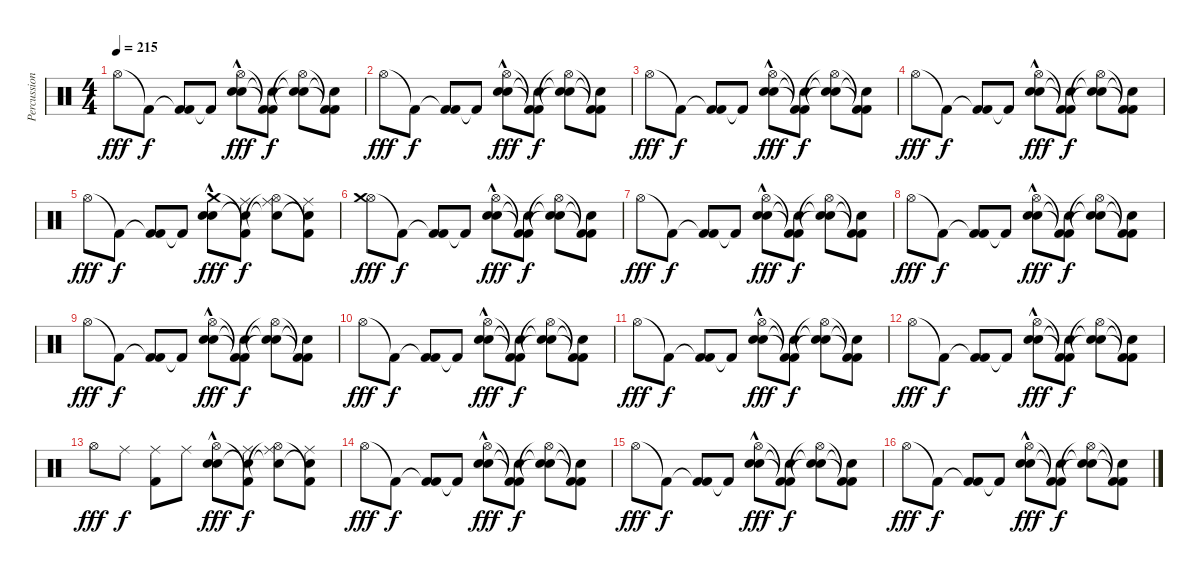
\track ("Percussion" "Percussion") {instrument percussion}
\staff {score}
\articulation defaults
\ts (4 4)
\tempo 215
\clef neutral
\ks c "Hi-Hat (open)".8{dy fff} "Kick (hit) 2"{t}.8{dy f}
("Kick (hit) 2"{t} "Kick (hit) 2").8 "Kick (hit) 2"{t}.8 ("Snare (hit) 2"{hac} "Hi-Hat (open)"{hac} "Electric Snare (hit)").8{dy fff} ("Kick (hit) 2"{t} "Kick (hit) 2"{t} "Snare (hit)"{t}).8{dy f} ("Snare (hit)"{t} "Hi-Hat (open)"{t} "Snare (hit)"{t}).8 ("Kick (hit) 2"{t} "Kick (hit) 2"{t} "Snare (hit)"{t}).8 |
"Hi-Hat (open)".8{dy fff} "Kick (hit) 2"{t}.8{dy f} ("Kick (hit) 2"{t} "Kick (hit) 2").8 "Kick (hit) 2"{t}.8 ("Snare (hit) 2"{hac} "Hi-Hat (open)"{hac} "Electric Snare (hit)").8{dy fff} ("Kick (hit) 2"{t} "Kick (hit) 2"{t} "Snare (hit)"{t}).8{dy f} ("Snare (hit)"{t} "Hi-Hat (open)"{t} "Snare (hit)"{t}).8 ("Kick (hit) 2"{t} "Kick (hit) 2"{t} "Snare (hit)"{t}).8 |
"Hi-Hat (open)".8{dy fff} "Kick (hit) 2"{t}.8{dy f} ("Kick (hit) 2"{t} "Kick (hit) 2").8 "Kick (hit) 2"{t}.8 ("Snare (hit) 2"{hac} "Hi-Hat (open)"{hac} "Electric Snare (hit)").8{dy fff} ("Kick (hit) 2"{t} "Kick (hit) 2"{t} "Snare (hit)"{t}).8{dy f} ("Snare (hit)"{t} "Hi-Hat (open)"{t} "Snare (hit)"{t}).8 ("Kick (hit) 2"{t} "Kick (hit) 2"{t} "Snare (hit)"{t}).8 |
"Hi-Hat (open)".8{dy fff} "Kick (hit) 2"{t}.8{dy f} ("Kick (hit) 2"{t} "Kick (hit) 2").8 "Kick (hit) 2"{t}.8 ("Snare (hit) 2"{hac} "Hi-Hat (open)"{hac} "Electric Snare (hit)").8{dy fff} ("Kick (hit) 2"{t} "Kick (hit) 2"{t} "Snare (hit)"{t}).8{dy f} ("Snare (hit)"{t} "Hi-Hat (open)"{t} "Snare (hit)"{t}).8 ("Kick (hit) 2"{t} "Kick (hit) 2"{t} "Snare (hit)"{t}).8 |
"Hi-Hat (open)".8{dy fff} "Kick (hit) 2"{t}.8{dy f} ("Kick (hit) 2"{t} "Kick (hit) 2").8 "Kick (hit) 2"{t}.8 ("Snare (hit) 2"{hac} "Crash medium (hit)"{hac} "Electric Snare (hit)").8{dy fff} ("Ride (middle)" "Kick (hit) 2"{t} "Snare (hit)"{t}).8{dy f} ("Ride (middle)" "Hi-Hat (open)"{t} "Snare (hit)"{t}).8 ("Ride (middle)" "Kick (hit) 2"{t} "Snare (hit)"{t}).8 |
("Hi-Hat (open)" "Crash medium (hit)").8{dy fff} "Kick (hit) 2"{t}.8{dy f} ("Kick (hit) 2"{t} "Kick (hit) 2").8 "Kick (hit) 2"{t}.8 ("Snare (hit) 2"{hac} "Hi-Hat (open)"{hac} "Electric Snare (hit)").8{dy fff} ("Kick (hit) 2"{t} "Kick (hit) 2"{t} "Snare (hit)"{t}).8{dy f} ("Snare (hit)"{t} "Hi-Hat (open)"{t} "Snare (hit)"{t}).8 ("Kick (hit) 2"{t} "Kick (hit) 2"{t} "Snare (hit)"{t}).8 |
"Hi-Hat (open)".8{dy fff} "Kick (hit) 2"{t}.8{dy f} ("Kick (hit) 2"{t} "Kick (hit) 2").8 "Kick (hit) 2"{t}.8 ("Snare (hit) 2"{hac} "Hi-Hat (open)"{hac} "Electric Snare (hit)").8{dy fff} ("Kick (hit) 2"{t} "Kick (hit) 2"{t} "Snare (hit)"{t}).8{dy f} ("Snare (hit)"{t} "Hi-Hat (open)"{t} "Snare (hit)"{t}).8 ("Kick (hit) 2"{t} "Kick (hit) 2"{t} "Snare (hit)"{t}).8 |
"Hi-Hat (open)".8{dy fff} "Kick (hit) 2"{t}.8{dy f} ("Kick (hit) 2"{t} "Kick (hit) 2").8 "Kick (hit) 2"{t}.8 ("Snare (hit) 2"{hac} "Hi-Hat (open)"{hac} "Electric Snare (hit)").8{dy fff} ("Kick (hit) 2"{t} "Kick (hit) 2"{t} "Snare (hit)"{t}).8{dy f} ("Snare (hit)"{t} "Hi-Hat (open)"{t} "Snare (hit)"{t}).8 ("Kick (hit) 2"{t} "Kick (hit) 2"{t} "Snare (hit)"{t}).8 |
"Hi-Hat (open)".8{dy fff} "Kick (hit) 2"{t}.8{dy f} ("Kick (hit) 2"{t} "Kick (hit) 2").8 "Kick (hit) 2"{t}.8 ("Snare (hit) 2"{hac} "Hi-Hat (open)"{hac} "Electric Snare (hit)").8{dy fff} ("Kick (hit) 2"{t} "Kick (hit) 2"{t} "Snare (hit)"{t}).8{dy f} ("Snare (hit)"{t} "Hi-Hat (open)"{t} "Snare (hit)"{t}).8 ("Kick (hit) 2"{t} "Kick (hit) 2"{t} "Snare (hit)"{t}).8 |
"Hi-Hat (open)".8{dy fff} "Kick (hit) 2"{t}.8{dy f} ("Kick (hit) 2"{t} "Kick (hit) 2").8 "Kick (hit) 2"{t}.8 ("Snare (hit) 2"{hac} "Hi-Hat (open)"{hac} "Electric Snare (hit)").8{dy fff} ("Kick (hit) 2"{t} "Kick (hit) 2"{t} "Snare (hit)"{t}).8{dy f} ("Snare (hit)"{t} "Hi-Hat (open)"{t} "Snare (hit)"{t}).8 ("Kick (hit) 2"{t} "Kick (hit) 2"{t} "Snare (hit)"{t}).8 |
"Hi-Hat (open)".8{dy fff} "Kick (hit) 2"{t}.8{dy f} ("Kick (hit) 2"{t} "Kick (hit) 2").8 "Kick (hit) 2"{t}.8 ("Snare (hit) 2"{hac} "Hi-Hat (open)"{hac} "Electric Snare (hit)").8{dy fff} ("Kick (hit) 2"{t} "Kick (hit) 2"{t} "Snare (hit)"{t}).8{dy f} ("Snare (hit)"{t} "Hi-Hat (open)"{t} "Snare (hit)"{t}).8 ("Kick (hit) 2"{t} "Kick (hit) 2"{t} "Snare (hit)"{t}).8 |
"Hi-Hat (open)".8{dy fff} "Kick (hit) 2"{t}.8{dy f} ("Kick (hit) 2"{t} "Kick (hit) 2").8 "Kick (hit) 2"{t}.8 ("Snare (hit) 2"{hac} "Hi-Hat (open)"{hac} "Electric Snare (hit)").8{dy fff} ("Kick (hit) 2"{t} "Kick (hit) 2"{t} "Snare (hit)"{t}).8{dy f} ("Snare (hit)"{t} "Hi-Hat (open)"{t} "Snare (hit)"{t}).8 ("Kick (hit) 2"{t} "Kick (hit) 2"{t} "Snare (hit)"{t}).8 |
"Hi-Hat (open)".8{dy fff} "Ride (middle)".8{dy f} ("Ride (middle)" "Kick (hit) 2").8 "Ride (middle)".8 ("Snare (hit) 2"{hac} "Hi-Hat (open)"{hac} "Electric Snare (hit)").8{dy fff} ("Ride (middle)" "Kick (hit) 2"{t} "Snare (hit)"{t}).8{dy f} ("Ride (middle)" "Hi-Hat (open)"{t} "Snare (hit)"{t}).8 ("Ride (middle)" "Kick (hit) 2"{t} "Snare (hit)"{t}).8 |
"Hi-Hat (open)".8{dy fff} "Kick (hit) 2"{t}.8{dy f} ("Kick (hit) 2"{t} "Kick (hit) 2").8 "Kick (hit) 2"{t}.8 ("Snare (hit) 2"{hac} "Hi-Hat (open)"{hac} "Electric Snare (hit)").8{dy fff} ("Kick (hit) 2"{t} "Kick (hit) 2"{t} "Snare (hit)"{t}).8{dy f} ("Snare (hit)"{t} "Hi-Hat (open)"{t} "Snare (hit)"{t}).8 ("Kick (hit) 2"{t} "Kick (hit) 2"{t} "Snare (hit)"{t}).8 |
"Hi-Hat (open)".8{dy fff} "Kick (hit) 2"{t}.8{dy f} ("Kick (hit) 2"{t} "Kick (hit) 2").8 "Kick (hit) 2"{t}.8 ("Snare (hit) 2"{hac} "Hi-Hat (open)"{hac} "Electric Snare (hit)").8{dy fff} ("Kick (hit) 2"{t} "Kick (hit) 2"{t} "Snare (hit)"{t}).8{dy f} ("Snare (hit)"{t} "Hi-Hat (open)"{t} "Snare (hit)"{t}).8 ("Kick (hit) 2"{t} "Kick (hit) 2"{t} "Snare (hit)"{t}).8 |
"Hi-Hat (open)".8{dy fff} "Kick (hit) 2"{t}.8{dy f} ("Kick (hit) 2"{t} "Kick (hit) 2").8 "Kick (hit) 2"{t}.8 ("Snare (hit) 2"{hac} "Hi-Hat (open)"{hac} "Electric Snare (hit)").8{dy fff} ("Kick (hit) 2"{t} "Kick (hit) 2"{t} "Snare (hit)"{t}).8{dy f} ("Snare (hit)"{t} "Hi-Hat (open)"{t} "Snare (hit)"{t}).8 ("Kick (hit) 2"{t} "Kick (hit) 2"{t} "Snare (hit)"{t}).8
